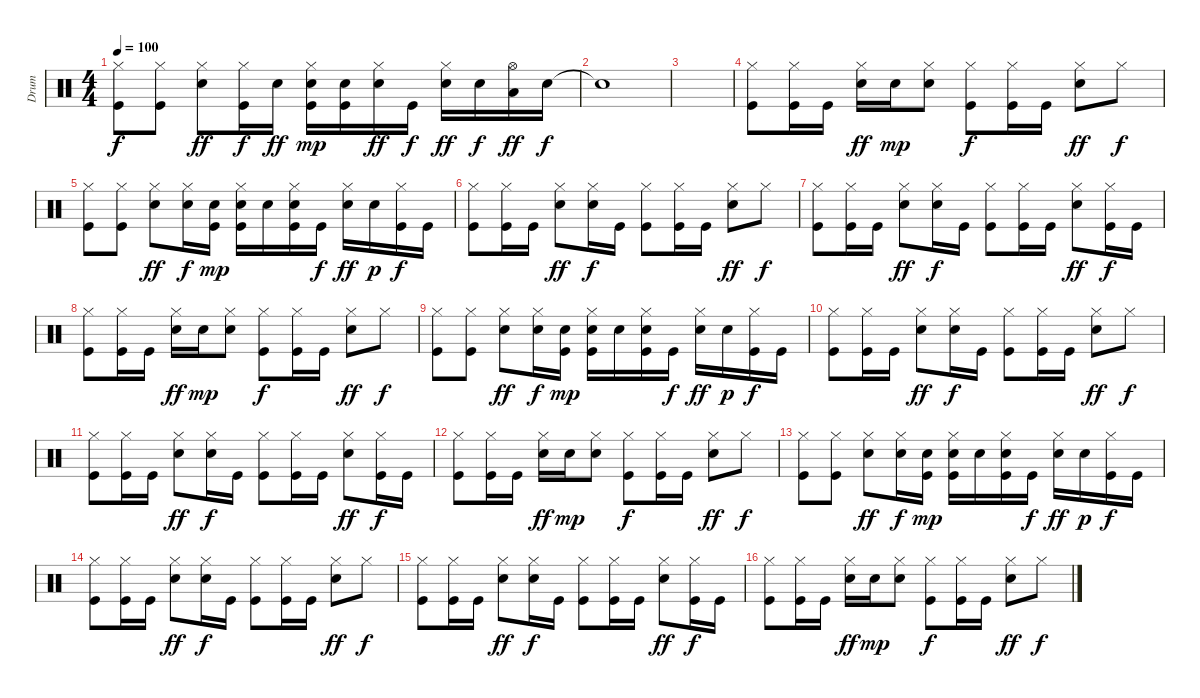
\track ("Drum" "Drum") {instrument percussion}
\staff {score}
\articulation defaults
\ts (4 4)
\tempo 100
\clef neutral
\ks c
("Hi-Hat (closed)" "Kick (hit)").8{dy f} ("Hi-Hat (closed)" "Kick (hit)").8 ("Hi-Hat (closed)" "Snare (hit) 2").8{dy ff} ("Hi-Hat (closed)" "Kick (hit)").16{dy f} "Snare (hit) 2".16{dy ff} ("Hi-Hat (closed)" "Snare (hit) 2" "Kick (hit)").16{dy mp} ("Snare (hit) 2" "Kick (hit)").16 ("Hi-Hat (closed)" "Snare (hit) 2").16{dy ff} "Kick (hit)".16{dy f} ("Hi-Hat (closed)" "Snare (hit) 2").16{dy ff} "Snare (hit) 2".16{dy f} ("Hi-Hat (open)" "Low Floor Tom (hit)").16{dy ff} "Snare (hit) 2".16{dy f} |
"Snare (hit)"{t}.1 |
|
("Hi-Hat (closed)" "Kick (hit)").8 ("Hi-Hat (closed)" "Kick (hit)").16 "Kick (hit)".16 ("Hi-Hat (closed)" "Snare (hit) 2").16{dy ff} "Snare (hit) 2".16{dy mp} ("Hi-Hat (closed)" "Snare (hit) 2").8 ("Hi-Hat (closed)" "Kick (hit)").8{dy f} ("Hi-Hat (closed)" "Kick (hit)").16 "Kick (hit)".16 ("Hi-Hat (closed)" "Snare (hit) 2").8{dy ff} "Hi-Hat (closed)".8{dy f} |
("Hi-Hat (closed)" "Kick (hit)").8 ("Hi-Hat (closed)" "Kick (hit)").8 ("Hi-Hat (closed)" "Snare (hit) 2").8{dy ff} ("Hi-Hat (closed)" "Snare (hit) 2").16{dy f} ("Snare (hit) 2" "Kick (hit)").16{dy mp} ("Hi-Hat (closed)" "Snare (hit) 2" "Kick (hit)").16 "Snare (hit) 2".16 ("Hi-Hat (closed)" "Snare (hit) 2" "Kick (hit)").16 "Kick (hit)".16{dy f} ("Hi-Hat (closed)" "Snare (hit) 2").16{dy ff} "Snare (hit) 2".16{dy p} ("Hi-Hat (closed)" "Kick (hit)").16{dy f} "Kick (hit)".16 |
("Hi-Hat (closed)" "Kick (hit)").8 ("Hi-Hat (closed)" "Kick (hit)").16 "Kick (hit)".16 ("Hi-Hat (closed)" "Snare (hit) 2").8{dy ff} ("Hi-Hat (closed)" "Snare (hit) 2").16{dy f} "Kick (hit)".16 ("Hi-Hat (closed)" "Kick (hit)").8 ("Hi-Hat (closed)" "Kick (hit)").16 "Kick (hit)".16 ("Hi-Hat (closed)" "Snare (hit) 2").8{dy ff} "Hi-Hat (closed)".8{dy f} |
("Hi-Hat (closed)" "Kick (hit)").8 ("Hi-Hat (closed)" "Kick (hit)").16 "Kick (hit)".16 ("Hi-Hat (closed)" "Snare (hit) 2").8{dy ff} ("Hi-Hat (closed)" "Snare (hit) 2").16{dy f} "Kick (hit)".16 ("Hi-Hat (closed)" "Kick (hit)").8 ("Hi-Hat (closed)" "Kick (hit)").16 "Kick (hit)".16 ("Hi-Hat (closed)" "Snare (hit) 2").8{dy ff} ("Hi-Hat (closed)" "Kick (hit)").16{dy f} "Kick (hit)".16 |
("Hi-Hat (closed)" "Kick (hit)").8 ("Hi-Hat (closed)" "Kick (hit)").16 "Kick (hit)".16 ("Hi-Hat (closed)" "Snare (hit) 2").16{dy ff} "Snare (hit) 2".16{dy mp} ("Hi-Hat (closed)" "Snare (hit) 2").8 ("Hi-Hat (closed)" "Kick (hit)").8{dy f} ("Hi-Hat (closed)" "Kick (hit)").16 "Kick (hit)".16 ("Hi-Hat (closed)" "Snare (hit) 2").8{dy ff} "Hi-Hat (closed)".8{dy f} |
("Hi-Hat (closed)" "Kick (hit)").8 ("Hi-Hat (closed)" "Kick (hit)").8 ("Hi-Hat (closed)" "Snare (hit) 2").8{dy ff} ("Hi-Hat (closed)" "Snare (hit) 2").16{dy f} ("Snare (hit) 2" "Kick (hit)").16{dy mp} ("Hi-Hat (closed)" "Snare (hit) 2" "Kick (hit)").16 "Snare (hit) 2".16 ("Hi-Hat (closed)" "Snare (hit) 2" "Kick (hit)").16 "Kick (hit)".16{dy f} ("Hi-Hat (closed)" "Snare (hit) 2").16{dy ff} "Snare (hit) 2".16{dy p} ("Hi-Hat (closed)" "Kick (hit)").16{dy f} "Kick (hit)".16 |
("Hi-Hat (closed)" "Kick (hit)").8 ("Hi-Hat (closed)" "Kick (hit)").16 "Kick (hit)".16 ("Hi-Hat (closed)" "Snare (hit) 2").8{dy ff} ("Hi-Hat (closed)" "Snare (hit) 2").16{dy f} "Kick (hit)".16 ("Hi-Hat (closed)" "Kick (hit)").8 ("Hi-Hat (closed)" "Kick (hit)").16 "Kick (hit)".16 ("Hi-Hat (closed)" "Snare (hit) 2").8{dy ff} "Hi-Hat (closed)".8{dy f} |
("Hi-Hat (closed)" "Kick (hit)").8 ("Hi-Hat (closed)" "Kick (hit)").16 "Kick (hit)".16 ("Hi-Hat (closed)" "Snare (hit) 2").8{dy ff} ("Hi-Hat (closed)" "Snare (hit) 2").16{dy f} "Kick (hit)".16 ("Hi-Hat (closed)" "Kick (hit)").8 ("Hi-Hat (closed)" "Kick (hit)").16 "Kick (hit)".16 ("Hi-Hat (closed)" "Snare (hit) 2").8{dy ff} ("Hi-Hat (closed)" "Kick (hit)").16{dy f} "Kick (hit)".16 |
("Hi-Hat (closed)" "Kick (hit)").8 ("Hi-Hat (closed)" "Kick (hit)").16 "Kick (hit)".16 ("Hi-Hat (closed)" "Snare (hit) 2").16{dy ff} "Snare (hit) 2".16{dy mp} ("Hi-Hat (closed)" "Snare (hit) 2").8 ("Hi-Hat (closed)" "Kick (hit)").8{dy f} ("Hi-Hat (closed)" "Kick (hit)").16 "Kick (hit)".16 ("Hi-Hat (closed)" "Snare (hit) 2").8{dy ff} "Hi-Hat (closed)".8{dy f} |
("Hi-Hat (closed)" "Kick (hit)").8 ("Hi-Hat (closed)" "Kick (hit)").8 ("Hi-Hat (closed)" "Snare (hit) 2").8{dy ff} ("Hi-Hat (closed)" "Snare (hit) 2").16{dy f} ("Snare (hit) 2" "Kick (hit)").16{dy mp} ("Hi-Hat (closed)" "Snare (hit) 2" "Kick (hit)").16 "Snare (hit) 2".16 ("Hi-Hat (closed)" "Snare (hit) 2" "Kick (hit)").16 "Kick (hit)".16{dy f} ("Hi-Hat (closed)" "Snare (hit) 2").16{dy ff} "Snare (hit) 2".16{dy p} ("Hi-Hat (closed)" "Kick (hit)").16{dy f} "Kick (hit)".16 |
("Hi-Hat (closed)" "Kick (hit)").8 ("Hi-Hat (closed)" "Kick (hit)").16 "Kick (hit)".16 ("Hi-Hat (closed)" "Snare (hit) 2").8{dy ff} ("Hi-Hat (closed)" "Snare (hit) 2").16{dy f} "Kick (hit)".16 ("Hi-Hat (closed)" "Kick (hit)").8 ("Hi-Hat (closed)" "Kick (hit)").16 "Kick (hit)".16 ("Hi-Hat (closed)" "Snare (hit) 2").8{dy ff} "Hi-Hat (closed)".8{dy f} |
("Hi-Hat (closed)" "Kick (hit)").8 ("Hi-Hat (closed)" "Kick (hit)").16 "Kick (hit)".16 ("Hi-Hat (closed)" "Snare (hit) 2").8{dy ff} ("Hi-Hat (closed)" "Snare (hit) 2").16{dy f} "Kick (hit)".16 ("Hi-Hat (closed)" "Kick (hit)").8 ("Hi-Hat (closed)" "Kick (hit)").16 "Kick (hit)".16 ("Hi-Hat (closed)" "Snare (hit) 2").8{dy ff} ("Hi-Hat (closed)" "Kick (hit)").16{dy f} "Kick (hit)".16 |
("Hi-Hat (closed)" "Kick (hit)").8 ("Hi-Hat (closed)" "Kick (hit)").16 "Kick (hit)".16 ("Hi-Hat (closed)" "Snare (hit) 2").16{dy ff} "Snare (hit) 2".16{dy mp} ("Hi-Hat (closed)" "Snare (hit) 2").8 ("Hi-Hat (closed)" "Kick (hit)").8{dy f} ("Hi-Hat (closed)" "Kick (hit)").16 "Kick (hit)".16 ("Hi-Hat (closed)" "Snare (hit) 2").8{dy ff} "Hi-Hat (closed)".8{dy f}
